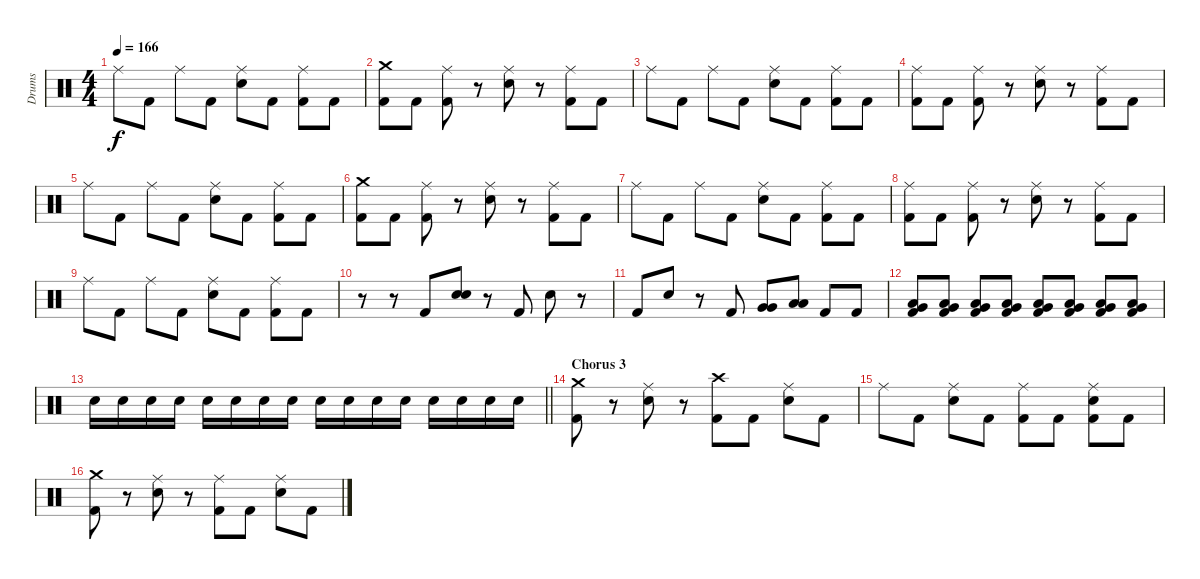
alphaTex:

\track ("Drums" "Drums") {instrument percussion}
\staff {score}
\articulation defaults
\ts (4 4)
\tempo 166
\clef neutral
\ks c "Ride (middle)".8{dy f} "Kick (hit) 2".8 "Ride (middle)".8 "Kick (hit) 2".8
("Ride (middle)" "Electric Snare (hit)").8 "Kick (hit) 2".8 ("Ride (middle)" "Kick (hit) 2").8 "Kick (hit) 2".8 |
("Crash medium (hit)" "Kick (hit) 2").8 "Kick (hit) 2".8 ("Ride (middle)" "Kick (hit) 2").8 r.8 ("Ride (middle)" "Electric Snare (hit)").8 r.8 ("Ride (middle)" "Kick (hit) 2").8 "Kick (hit) 2".8 |
"Ride (middle)".8 "Kick (hit) 2".8 "Ride (middle)".8 "Kick (hit) 2".8 ("Ride (middle)" "Electric Snare (hit)").8 "Kick (hit) 2".8 ("Ride (middle)" "Kick (hit) 2").8 "Kick (hit) 2".8 |
("Ride (middle)" "Kick (hit) 2").8 "Kick (hit) 2".8 ("Ride (middle)" "Kick (hit) 2").8 r.8 ("Ride (middle)" "Electric Snare (hit)").8 r.8 ("Ride (middle)" "Kick (hit) 2").8 "Kick (hit) 2".8 |
"Ride (middle)".8 "Kick (hit) 2".8 "Ride (middle)".8 "Kick (hit) 2".8 ("Ride (middle)" "Electric Snare (hit)").8 "Kick (hit) 2".8 ("Ride (middle)" "Kick (hit) 2").8 "Kick (hit) 2".8 |
("Crash medium (hit)" "Kick (hit) 2").8 "Kick (hit) 2".8 ("Ride (middle)" "Kick (hit) 2").8 r.8 ("Ride (middle)" "Electric Snare (hit)").8 r.8 ("Ride (middle)" "Kick (hit) 2").8 "Kick (hit) 2".8 |
"Ride (middle)".8 "Kick (hit) 2".8 "Ride (middle)".8 "Kick (hit) 2".8 ("Ride (middle)" "Electric Snare (hit)").8 "Kick (hit) 2".8 ("Ride (middle)" "Kick (hit) 2").8 "Kick (hit) 2".8 |
("Ride (middle)" "Kick (hit) 2").8 "Kick (hit) 2".8 ("Ride (middle)" "Kick (hit) 2").8 r.8 ("Ride (middle)" "Electric Snare (hit)").8 r.8 ("Ride (middle)" "Kick (hit) 2").8 "Kick (hit) 2".8 |
"Ride (middle)".8 "Kick (hit) 2".8 "Ride (middle)".8 "Kick (hit) 2".8 ("Ride (middle)" "Electric Snare (hit)").8 "Kick (hit) 2".8 ("Ride (middle)" "Kick (hit) 2").8 "Kick (hit) 2".8 |
r.8 r.8 "Kick (hit) 2".8 ("Electric Snare (hit)" "Electric Snare (hit)").8 r.8 "Kick (hit) 2".8 "Electric Snare (hit)".8 r.8 |
"Kick (hit) 2".8 "Electric Snare (hit)".8 r.8 "Kick (hit) 2".8 ("Very Low Tom (hit)" "Very Low Tom (hit)").8 ("Low Floor Tom (hit)" "Low Floor Tom (hit)").8 "Kick (hit) 2".8 "Kick (hit) 2".8 |
("Very Low Tom (hit)" "Low Floor Tom (hit)" "Kick (hit) 2").8 ("Very Low Tom (hit)" "Low Floor Tom (hit)" "Kick (hit) 2").8 ("Very Low Tom (hit)" "Low Floor Tom (hit)" "Kick (hit) 2").8 ("Very Low Tom (hit)" "Low Floor Tom (hit)" "Kick (hit) 2").8 ("Very Low Tom (hit)" "Low Floor Tom (hit)" "Kick (hit) 2").8 ("Very Low Tom (hit)" "Low Floor Tom (hit)" "Kick (hit) 2").8 ("Very Low Tom (hit)" "Low Floor Tom (hit)" "Kick (hit) 2").8 ("Very Low Tom (hit)" "Low Floor Tom (hit)" "Kick (hit) 2").8 |
\barLineRight lightlight "Electric Snare (hit)".16 "Electric Snare (hit)".16 "Electric Snare (hit)".16 "Electric Snare (hit)".16 "Electric Snare (hit)".16 "Electric Snare (hit)".16 "Electric Snare (hit)".16 "Electric Snare (hit)".16 "Electric Snare (hit)".16 "Electric Snare (hit)".16 "Electric Snare (hit)".16 "Electric Snare (hit)".16 "Electric Snare (hit)".16 "Electric Snare (hit)".16 "Electric Snare (hit)".16 "Electric Snare (hit)".16
|
\section ("" "Chorus 3")
("Crash medium (hit)" "Kick (hit) 2").8 r.8 ("Ride (middle)" "Electric Snare (hit)").8 r.8 ("Crash high (hit)" "Kick (hit) 2").8 "Kick (hit) 2".8 ("Ride (middle)" "Electric Snare (hit)").8 "Kick (hit) 2".8 |
"Ride (middle)".8 "Kick (hit) 2".8 ("Ride (middle)" "Electric Snare (hit)").8 "Kick (hit) 2".8 ("Ride (middle)" "Kick (hit) 2").8 "Kick (hit) 2".8 ("Ride (middle)" "Electric Snare (hit)" "Kick (hit) 2").8 "Kick (hit) 2".8 |
("Crash medium (hit)" "Kick (hit) 2").8 r.8 ("Ride (middle)" "Electric Snare (hit)").8 r.8 ("Ride (middle)" "Kick (hit) 2").8 "Kick (hit) 2".8 ("Ride (middle)" "Electric Snare (hit)").8 "Kick (hit) 2".8
